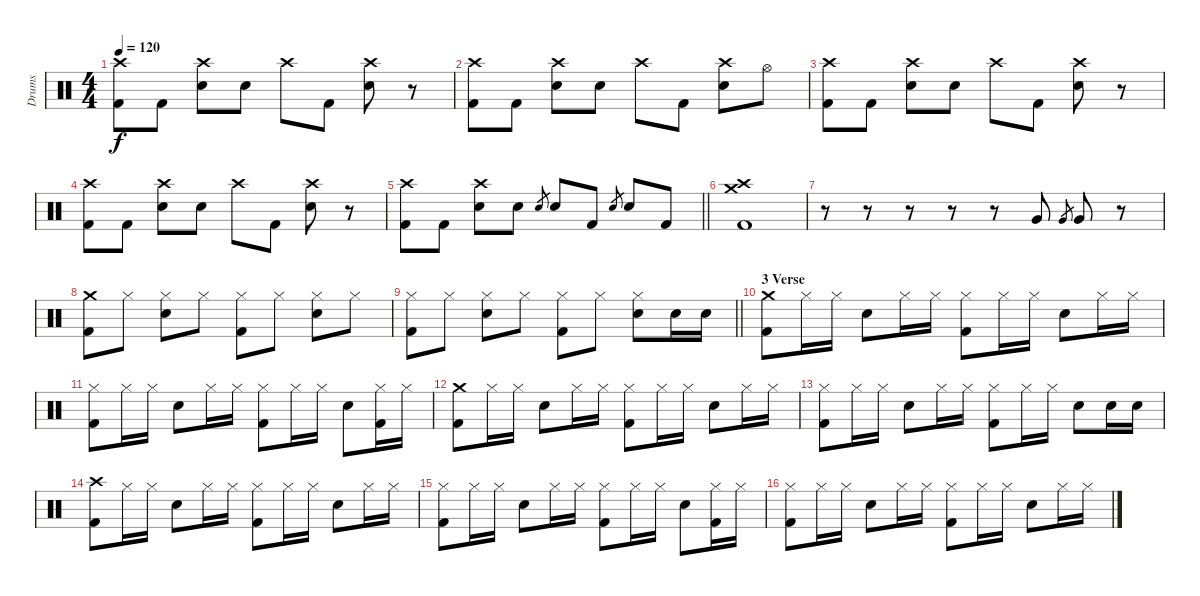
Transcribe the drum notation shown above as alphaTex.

\track ("Drums" "Drums") {instrument percussion}
\staff {score}
\articulation defaults
\ts (4 4)
\tempo 120
\clef neutral
\ks c
("Crash high (hit)" "Kick (hit) 2").8{dy f} "Kick (hit) 2".8 ("Crash high (hit)" "Electric Snare (hit)").8 "Electric Snare (hit)".8 "Crash high (hit)".8 "Kick (hit) 2".8 ("Crash high (hit)" "Electric Snare (hit)").8 r.8 |
("Crash high (hit)" "Kick (hit) 2").8 "Kick (hit) 2".8 ("Crash high (hit)" "Electric Snare (hit)").8 "Electric Snare (hit)".8 "Crash high (hit)".8 "Kick (hit) 2".8 ("Crash high (hit)" "Electric Snare (hit)").8 "Hi-Hat (open)".8 |
("Crash high (hit)" "Kick (hit) 2").8 "Kick (hit) 2".8 ("Crash high (hit)" "Electric Snare (hit)").8 "Electric Snare (hit)".8 "Crash high (hit)".8 "Kick (hit) 2".8 ("Crash high (hit)" "Electric Snare (hit)").8 r.8 |
("Crash high (hit)" "Kick (hit) 2").8 "Kick (hit) 2".8 ("Crash high (hit)" "Electric Snare (hit)").8 "Electric Snare (hit)".8 "Crash high (hit)".8 "Kick (hit) 2".8 ("Crash high (hit)" "Electric Snare (hit)").8 r.8 |
\barLineRight lightlight
("Crash high (hit)" "Kick (hit) 2").8 "Kick (hit) 2".8 ("Crash high (hit)" "Electric Snare (hit)").8 "Electric Snare (hit)".8 "Electric Snare (hit)".8{gr} "Electric Snare (hit)".8 "Kick (hit) 2".8 "Electric Snare (hit)".8{gr} "Electric Snare (hit)".8 "Kick (hit) 2".8 |
\section ("" "")
("Crash high (hit)" "Crash medium (hit)" "Kick (hit) 2").1 |
r.8 r.8 r.8 r.8 r.8 "Very Low Tom (hit)".8 "Very Low Tom (hit)".8{gr} "Very Low Tom (hit)".8 r.8 |
("Crash medium (hit)" "Kick (hit) 2").8 "Hi-Hat (closed)".8 ("Hi-Hat (closed)" "Electric Snare (hit)").8 "Hi-Hat (closed)".8 ("Hi-Hat (closed)" "Kick (hit) 2").8 "Hi-Hat (closed)".8 ("Hi-Hat (closed)" "Electric Snare (hit)").8 "Hi-Hat (closed)".8 |
\barLineRight lightlight
("Hi-Hat (closed)" "Kick (hit) 2").8 "Hi-Hat (closed)".8 ("Hi-Hat (closed)" "Electric Snare (hit)").8 "Hi-Hat (closed)".8 ("Hi-Hat (closed)" "Kick (hit) 2").8 "Hi-Hat (closed)".8 ("Hi-Hat (closed)" "Electric Snare (hit)").8 "Electric Snare (hit)".16 "Electric Snare (hit)".16 |
\section ("" "3 Verse")
("Crash medium (hit)" "Kick (hit) 2").8 "Hi-Hat (closed)".16 "Hi-Hat (closed)".16 "Electric Snare (hit)".8 "Hi-Hat (closed)".16 "Hi-Hat (closed)".16 ("Hi-Hat (closed)" "Kick (hit) 2").8 "Hi-Hat (closed)".16 "Hi-Hat (closed)".16 "Electric Snare (hit)".8 "Hi-Hat (closed)".16 "Hi-Hat (closed)".16 |
("Hi-Hat (closed)" "Kick (hit) 2").8 "Hi-Hat (closed)".16 "Hi-Hat (closed)".16 "Electric Snare (hit)".8 "Hi-Hat (closed)".16 "Hi-Hat (closed)".16 ("Hi-Hat (closed)" "Kick (hit) 2").8 "Hi-Hat (closed)".16 "Hi-Hat (closed)".16 "Electric Snare (hit)".8 ("Hi-Hat (closed)" "Kick (hit) 2").16 "Hi-Hat (closed)".16 |
("Crash medium (hit)" "Kick (hit) 2").8 "Hi-Hat (closed)".16 "Hi-Hat (closed)".16 "Electric Snare (hit)".8 "Hi-Hat (closed)".16 "Hi-Hat (closed)".16 ("Hi-Hat (closed)" "Kick (hit) 2").8 "Hi-Hat (closed)".16 "Hi-Hat (closed)".16 "Electric Snare (hit)".8 "Hi-Hat (closed)".16 "Hi-Hat (closed)".16 |
("Hi-Hat (closed)" "Kick (hit) 2").8 "Hi-Hat (closed)".16 "Hi-Hat (closed)".16 "Electric Snare (hit)".8 "Hi-Hat (closed)".16 "Hi-Hat (closed)".16 ("Hi-Hat (closed)" "Kick (hit) 2").8 "Hi-Hat (closed)".16 "Hi-Hat (closed)".16 "Electric Snare (hit)".8 "Electric Snare (hit)".16 "Electric Snare (hit)".16 |
("Crash high (hit)" "Kick (hit) 2").8 "Hi-Hat (closed)".16 "Hi-Hat (closed)".16 "Electric Snare (hit)".8 "Hi-Hat (closed)".16 "Hi-Hat (closed)".16 ("Hi-Hat (closed)" "Kick (hit) 2").8 "Hi-Hat (closed)".16 "Hi-Hat (closed)".16 "Electric Snare (hit)".8 "Hi-Hat (closed)".16 "Hi-Hat (closed)".16 |
("Hi-Hat (closed)" "Kick (hit) 2").8 "Hi-Hat (closed)".16 "Hi-Hat (closed)".16 "Electric Snare (hit)".8 "Hi-Hat (closed)".16 "Hi-Hat (closed)".16 ("Hi-Hat (closed)" "Kick (hit) 2").8 "Hi-Hat (closed)".16 "Hi-Hat (closed)".16 "Electric Snare (hit)".8 ("Hi-Hat (closed)" "Kick (hit) 2").16 "Hi-Hat (closed)".16 |
("Hi-Hat (closed)" "Kick (hit) 2").8 "Hi-Hat (closed)".16 "Hi-Hat (closed)".16 "Electric Snare (hit)".8 "Hi-Hat (closed)".16 "Hi-Hat (closed)".16 ("Hi-Hat (closed)" "Kick (hit) 2").8 "Hi-Hat (closed)".16 "Hi-Hat (closed)".16 "Electric Snare (hit)".8 "Hi-Hat (closed)".16 "Hi-Hat (closed)".16
